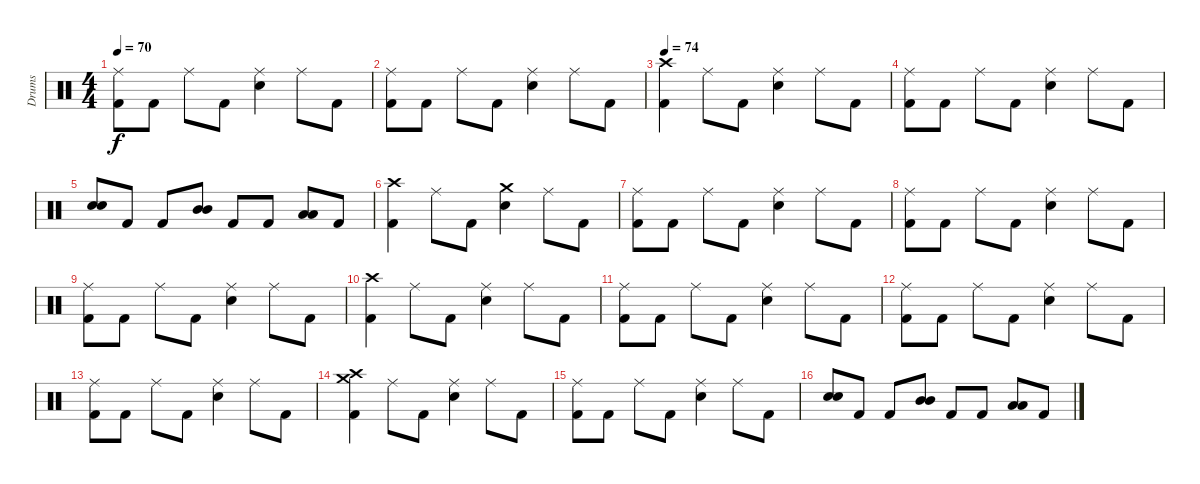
\track ("Drums" "Drums") {instrument percussion}
\staff {score}
\articulation defaults
\ts (4 4)
\tempo 70
\clef neutral
\ks c
("Ride (middle)" "Kick (hit) 2").8{dy f} "Kick (hit) 2".8 "Ride (middle)".8 "Kick (hit) 2".8 ("Ride (middle)" "Electric Snare (hit)").4 "Ride (middle)".8 "Kick (hit) 2".8 |
("Ride (middle)" "Kick (hit) 2").8 "Kick (hit) 2".8 "Ride (middle)".8 "Kick (hit) 2".8 ("Ride (middle)" "Electric Snare (hit)").4 "Ride (middle)".8 "Kick (hit) 2".8 |
\tempo 74
("Crash high (hit)" "Kick (hit) 2").4 "Ride (middle)".8 "Kick (hit) 2".8 ("Ride (middle)" "Electric Snare (hit)").4 "Ride (middle)".8 "Kick (hit) 2".8 |
("Ride (middle)" "Kick (hit) 2").8 "Kick (hit) 2".8 "Ride (middle)".8 "Kick (hit) 2".8 ("Ride (middle)" "Electric Snare (hit)").4 "Ride (middle)".8 "Kick (hit) 2".8 |
("Electric Snare (hit)" "Electric Snare (hit)").8{bu 60} "Kick (hit) 2".8 "Kick (hit) 2".8 ("Mid Tom (hit)" "Mid Tom (hit)").8{bu 60} "Kick (hit) 2".8 "Kick (hit) 2".8 ("Low Tom (hit)" "Low Tom (hit)").8{bu 60} "Kick (hit) 2".8 |
("Crash high (hit)" "Kick (hit) 2").4 "Ride (middle)".8 "Kick (hit) 2".8 ("Crash medium (hit)" "Electric Snare (hit)").4 "Ride (middle)".8 "Kick (hit) 2".8 |
("Ride (middle)" "Kick (hit) 2").8 "Kick (hit) 2".8 "Ride (middle)".8 "Kick (hit) 2".8 ("Ride (middle)" "Electric Snare (hit)").4 "Ride (middle)".8 "Kick (hit) 2".8 |
("Ride (middle)" "Kick (hit) 2").8 "Kick (hit) 2".8 "Ride (middle)".8 "Kick (hit) 2".8 ("Ride (middle)" "Electric Snare (hit)").4 "Ride (middle)".8 "Kick (hit) 2".8 |
("Ride (middle)" "Kick (hit) 2").8 "Kick (hit) 2".8 "Ride (middle)".8 "Kick (hit) 2".8 ("Ride (middle)" "Electric Snare (hit)").4 "Ride (middle)".8 "Kick (hit) 2".8 |
("Crash high (hit)" "Kick (hit) 2").4 "Ride (middle)".8 "Kick (hit) 2".8 ("Ride (middle)" "Electric Snare (hit)").4 "Ride (middle)".8 "Kick (hit) 2".8 |
("Ride (middle)" "Kick (hit) 2").8 "Kick (hit) 2".8 "Ride (middle)".8 "Kick (hit) 2".8 ("Ride (middle)" "Electric Snare (hit)").4 "Ride (middle)".8 "Kick (hit) 2".8 |
("Ride (middle)" "Kick (hit) 2").8 "Kick (hit) 2".8 "Ride (middle)".8 "Kick (hit) 2".8 ("Ride (middle)" "Electric Snare (hit)").4 "Ride (middle)".8 "Kick (hit) 2".8 |
("Ride (middle)" "Kick (hit) 2").8 "Kick (hit) 2".8 "Ride (middle)".8 "Kick (hit) 2".8 ("Ride (middle)" "Electric Snare (hit)").4 "Ride (middle)".8 "Kick (hit) 2".8 |
("Crash high (hit)" "Crash medium (hit)" "Kick (hit) 2").4 "Ride (middle)".8 "Kick (hit) 2".8 ("Ride (middle)" "Electric Snare (hit)").4 "Ride (middle)".8 "Kick (hit) 2".8 |
("Ride (middle)" "Kick (hit) 2").8 "Kick (hit) 2".8 "Ride (middle)".8 "Kick (hit) 2".8 ("Ride (middle)" "Electric Snare (hit)").4 "Ride (middle)".8 "Kick (hit) 2".8 |
("Electric Snare (hit)" "Electric Snare (hit)").8{bu 60} "Kick (hit) 2".8 "Kick (hit) 2".8 ("Mid Tom (hit)" "Mid Tom (hit)").8{bu 60} "Kick (hit) 2".8 "Kick (hit) 2".8 ("Low Tom (hit)" "Low Tom (hit)").8{bu 60} "Kick (hit) 2".8
